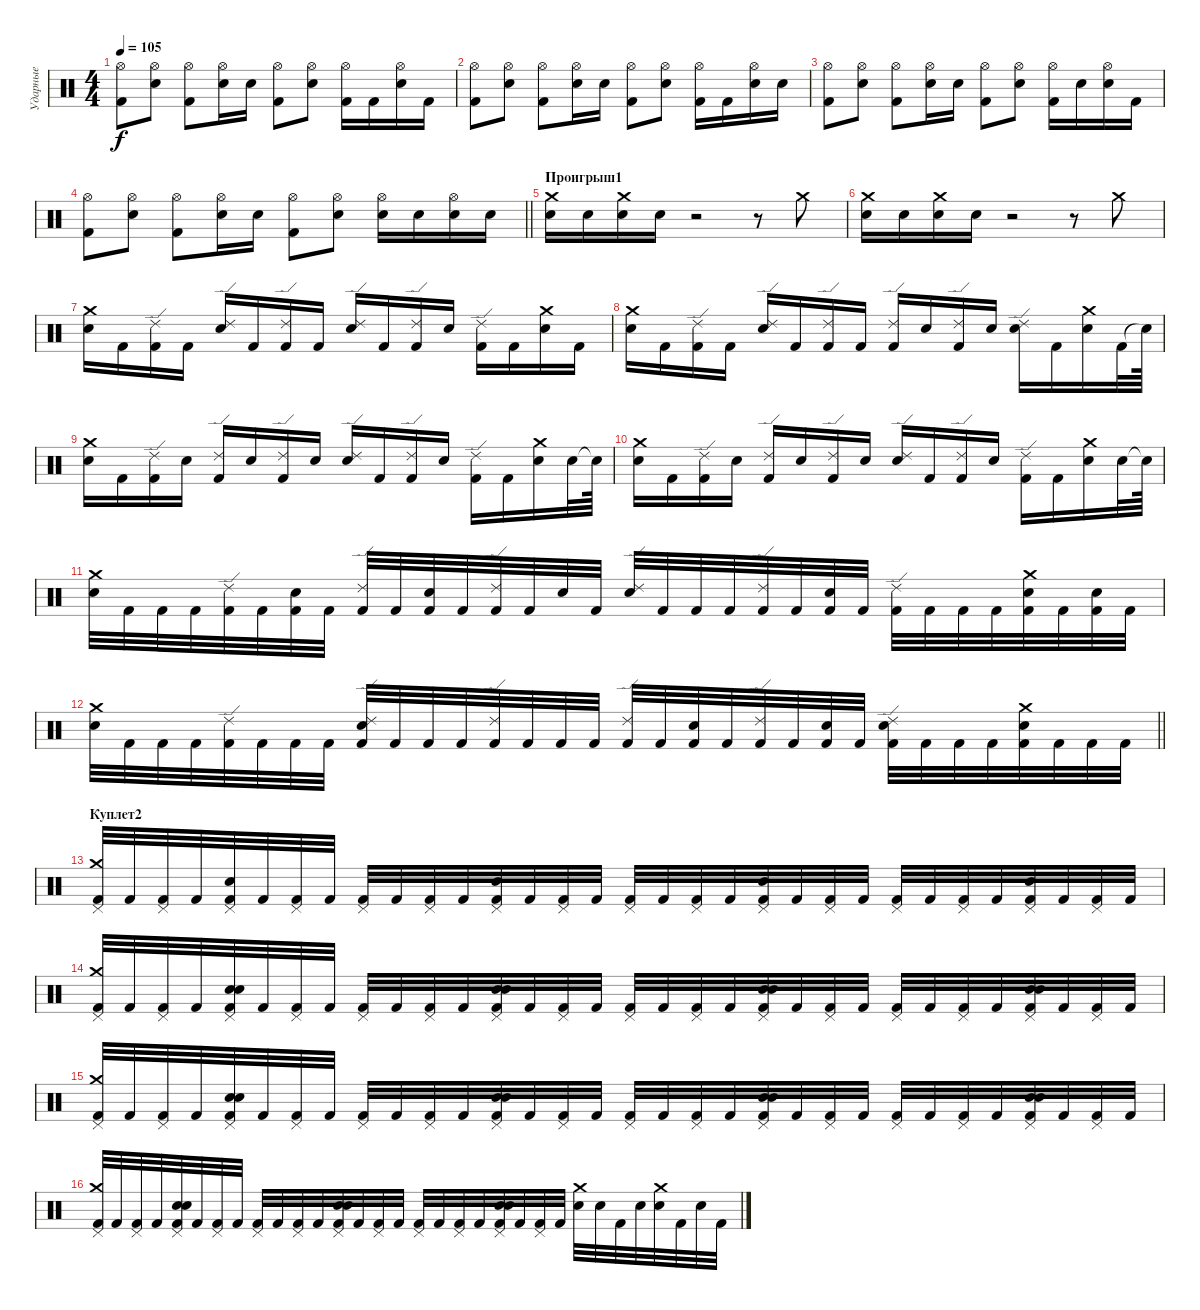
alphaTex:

\track ("Ударные" "Ударные") {instrument percussion}
\staff {score}
\articulation defaults
\ts (4 4)
\tempo 105
\clef neutral
\ks c
("Hi-Hat (open)" "Kick (hit) 2").8{dy f} ("Hi-Hat (open)" "Electric Snare (hit)").8 ("Hi-Hat (open)" "Kick (hit) 2").8 ("Hi-Hat (open)" "Electric Snare (hit)").16 "Electric Snare (hit)".16 ("Kick (hit) 2" "Hi-Hat (open)").8 ("Electric Snare (hit)" "Hi-Hat (open)").8 ("Kick (hit) 2" "Hi-Hat (open)").16 "Kick (hit) 2".16 ("Electric Snare (hit)" "Hi-Hat (open)").16 "Kick (hit) 2".16 |
("Kick (hit) 2" "Hi-Hat (open)").8 ("Electric Snare (hit)" "Hi-Hat (open)").8 ("Kick (hit) 2" "Hi-Hat (open)").8 ("Electric Snare (hit)" "Hi-Hat (open)").16 "Electric Snare (hit)".16 ("Kick (hit) 2" "Hi-Hat (open)").8 ("Electric Snare (hit)" "Hi-Hat (open)").8 ("Kick (hit) 2" "Hi-Hat (open)").16 "Kick (hit) 2".16 ("Electric Snare (hit)" "Hi-Hat (open)").16 "Electric Snare (hit)".16 |
("Hi-Hat (open)" "Kick (hit) 2").8 ("Hi-Hat (open)" "Electric Snare (hit)").8 ("Hi-Hat (open)" "Kick (hit) 2").8 ("Hi-Hat (open)" "Electric Snare (hit)").16 "Electric Snare (hit)".16 ("Kick (hit) 2" "Hi-Hat (open)").8 ("Electric Snare (hit)" "Hi-Hat (open)").8 ("Kick (hit) 2" "Hi-Hat (open)").16 "Electric Snare (hit)".16 ("Electric Snare (hit)" "Hi-Hat (open)").16 "Kick (hit) 2".16 |
\barLineRight lightlight
("Kick (hit) 2" "Hi-Hat (open)").8 ("Electric Snare (hit)" "Hi-Hat (open)").8 ("Kick (hit) 2" "Hi-Hat (open)").8 ("Electric Snare (hit)" "Hi-Hat (open)").16 "Electric Snare (hit)".16 ("Kick (hit) 2" "Hi-Hat (open)").8 ("Electric Snare (hit)" "Hi-Hat (open)").8 ("Electric Snare (hit)" "Hi-Hat (open)").16 "Electric Snare (hit)".16 ("Electric Snare (hit)" "Hi-Hat (open)").16 "Electric Snare (hit)".16 |
\section ("" "Проигрыш1")
("Crash medium (hit)" "Electric Snare (hit)").16 "Electric Snare (hit)".16 ("Crash medium (hit)" "Electric Snare (hit)").16 "Electric Snare (hit)".16 r.2 r.8 "Crash medium (hit)".8 |
("Electric Snare (hit)" "Crash medium (hit)").16 "Electric Snare (hit)".16 ("Electric Snare (hit)" "Crash medium (hit)").16 "Electric Snare (hit)".16 r.2 r.8 "Crash medium (hit)".8 |
("Crash medium (hit)" "Electric Snare (hit)").16 "Kick (hit) 2".16 ("Ride (edge) 2" "Kick (hit) 2").16 "Kick (hit) 2".16 ("Ride (edge) 2" "Electric Snare (hit)").16 "Kick (hit) 2".16 ("Ride (edge) 2" "Kick (hit) 2").16 "Kick (hit) 2".16 ("Ride (edge) 2" "Electric Snare (hit)").16 "Kick (hit) 2".16 ("Ride (edge) 2" "Kick (hit) 2").16 "Electric Snare (hit)".16 ("Ride (edge) 2" "Kick (hit) 2").16 "Kick (hit) 2".16 ("Crash medium (hit)" "Electric Snare (hit)").16 "Kick (hit) 2".16 |
("Crash medium (hit)" "Electric Snare (hit)").16 "Kick (hit) 2".16 ("Ride (edge) 2" "Kick (hit) 2").16 "Kick (hit) 2".16 ("Ride (edge) 2" "Electric Snare (hit)").16 "Kick (hit) 2".16 ("Ride (edge) 2" "Kick (hit) 2").16 "Kick (hit) 2".16 ("Ride (edge) 2" "Kick (hit) 2").16 "Electric Snare (hit)".16 ("Ride (edge) 2" "Kick (hit) 2").16 "Electric Snare (hit)".16 ("Ride (edge) 2" "Electric Snare (hit)").16 "Kick (hit) 2".16 ("Crash medium (hit)" "Electric Snare (hit)").16 "Kick (hit) 2".32 "Snare (hit)"{t}.64 |
("Crash medium (hit)" "Electric Snare (hit)").16 "Kick (hit) 2".16 ("Ride (edge) 2" "Kick (hit) 2").16 "Electric Snare (hit)".16 ("Ride (edge) 2" "Kick (hit) 2").16 "Electric Snare (hit)".16 ("Ride (edge) 2" "Kick (hit) 2").16 "Electric Snare (hit)".16 ("Ride (edge) 2" "Electric Snare (hit)").16 "Kick (hit) 2".16 ("Ride (edge) 2" "Kick (hit) 2").16 "Electric Snare (hit)".16 ("Ride (edge) 2" "Kick (hit) 2").16 "Kick (hit) 2".16 ("Crash medium (hit)" "Electric Snare (hit)").16 "Electric Snare (hit)".32 "Snare (hit)"{t}.64 |
("Crash medium (hit)" "Electric Snare (hit)").16 "Kick (hit) 2".16 ("Ride (edge) 2" "Kick (hit) 2").16 "Electric Snare (hit)".16 ("Ride (edge) 2" "Kick (hit) 2").16 "Electric Snare (hit)".16 ("Ride (edge) 2" "Kick (hit) 2").16 "Electric Snare (hit)".16 ("Ride (edge) 2" "Electric Snare (hit)").16 "Kick (hit) 2".16 ("Ride (edge) 2" "Kick (hit) 2").16 "Electric Snare (hit)".16 ("Ride (edge) 2" "Kick (hit) 2").16 "Kick (hit) 2".16 ("Crash medium (hit)" "Electric Snare (hit)").16 "Electric Snare (hit)".32 "Snare (hit)"{t}.64 |
("Crash medium (hit)" "Electric Snare (hit)").32 "Kick (hit) 2".32 "Kick (hit) 2".32 "Kick (hit) 2".32 ("Ride (edge) 2" "Kick (hit) 2").32 "Kick (hit) 2".32 ("Kick (hit) 2" "Electric Snare (hit)").32 "Kick (hit) 2".32 ("Ride (edge) 2" "Kick (hit) 2").32 "Kick (hit) 2".32 ("Kick (hit) 2" "Electric Snare (hit)").32 "Kick (hit) 2".32 ("Ride (edge) 2" "Kick (hit) 2").32 "Kick (hit) 2".32 "Electric Snare (hit)".32 "Kick (hit) 2".32 ("Ride (edge) 2" "Electric Snare (hit)").32 "Kick (hit) 2".32 "Kick (hit) 2".32 "Kick (hit) 2".32 ("Ride (edge) 2" "Kick (hit) 2").32 "Kick (hit) 2".32 ("Kick (hit) 2" "Electric Snare (hit)").32 "Kick (hit) 2".32 ("Ride (edge) 2" "Kick (hit) 2").32 "Kick (hit) 2".32 "Kick (hit) 2".32 "Kick (hit) 2".32 ("Kick (hit) 2" "Crash medium (hit)" "Electric Snare (hit)").32 "Kick (hit) 2".32 ("Kick (hit) 2" "Electric Snare (hit)").32 "Kick (hit) 2".32 |
\barLineRight lightlight
("Crash medium (hit)" "Electric Snare (hit)").32 "Kick (hit) 2".32 "Kick (hit) 2".32 "Kick (hit) 2".32 ("Ride (edge) 2" "Kick (hit) 2").32 "Kick (hit) 2".32 "Kick (hit) 2".32 "Kick (hit) 2".32 ("Kick (hit) 2" "Ride (edge) 2" "Electric Snare (hit)").32 "Kick (hit) 2".32 "Kick (hit) 2".32 "Kick (hit) 2".32 ("Ride (edge) 2" "Kick (hit) 2").32 "Kick (hit) 2".32 "Kick (hit) 2".32 "Kick (hit) 2".32 ("Ride (edge) 2" "Kick (hit) 2").32 "Kick (hit) 2".32 ("Kick (hit) 2" "Electric Snare (hit)").32 "Kick (hit) 2".32 ("Ride (edge) 2" "Kick (hit) 2").32 "Kick (hit) 2".32 ("Kick (hit) 2" "Electric Snare (hit)").32 "Kick (hit) 2".32 ("Kick (hit) 2" "Ride (edge) 2" "Electric Snare (hit)").32 "Kick (hit) 2".32 "Kick (hit) 2".32 "Kick (hit) 2".32 ("Kick (hit) 2" "Crash medium (hit)" "Electric Snare (hit)").32 "Kick (hit) 2".32 "Kick (hit) 2".32 "Kick (hit) 2".32 |
\section ("" "Куплет2")
("Crash medium (hit)" "Pedal Hi-Hat (hit)" "Kick (hit) 2").32 "Kick (hit) 2".32 ("Pedal Hi-Hat (hit)" "Kick (hit) 2").32 "Kick (hit) 2".32 ("Pedal Hi-Hat (hit)" "Kick (hit) 2" "Electric Snare (hit)").32 "Kick (hit) 2".32 ("Pedal Hi-Hat (hit)" "Kick (hit) 2").32 "Kick (hit) 2".32 ("Kick (hit) 2" "Pedal Hi-Hat (hit)").32 "Kick (hit) 2".32 ("Kick (hit) 2" "Pedal Hi-Hat (hit)").32 "Kick (hit) 2".32 ("Kick (hit) 2" "Electric Snare (hit)" "Pedal Hi-Hat (hit)").32 "Kick (hit) 2".32 ("Kick (hit) 2" "Pedal Hi-Hat (hit)").32 "Kick (hit) 2".32 ("Kick (hit) 2" "Pedal Hi-Hat (hit)").32 "Kick (hit) 2".32 ("Kick (hit) 2" "Pedal Hi-Hat (hit)").32 "Kick (hit) 2".32 ("Kick (hit) 2" "Electric Snare (hit)" "Pedal Hi-Hat (hit)").32 "Kick (hit) 2".32 ("Kick (hit) 2" "Pedal Hi-Hat (hit)").32 "Kick (hit) 2".32 ("Kick (hit) 2" "Pedal Hi-Hat (hit)").32 "Kick (hit) 2".32 ("Kick (hit) 2" "Pedal Hi-Hat (hit)").32 "Kick (hit) 2".32 ("Kick (hit) 2" "Electric Snare (hit)" "Pedal Hi-Hat (hit)").32 "Kick (hit) 2".32 ("Kick (hit) 2" "Pedal Hi-Hat (hit)").32 "Kick (hit) 2".32 |
("Kick (hit) 2" "Crash medium (hit)" "Pedal Hi-Hat (hit)").32 "Kick (hit) 2".32 ("Kick (hit) 2" "Pedal Hi-Hat (hit)").32 "Kick (hit) 2".32 ("Kick (hit) 2" "Electric Snare (hit)" "Pedal Hi-Hat (hit)" "Electric Snare (hit)").32 "Kick (hit) 2".32 ("Kick (hit) 2" "Pedal Hi-Hat (hit)").32 "Kick (hit) 2".32 ("Kick (hit) 2" "Pedal Hi-Hat (hit)").32 "Kick (hit) 2".32 ("Kick (hit) 2" "Pedal Hi-Hat (hit)").32 "Kick (hit) 2".32 ("Kick (hit) 2" "Electric Snare (hit)" "Electric Snare (hit)" "Pedal Hi-Hat (hit)").32 "Kick (hit) 2".32 ("Kick (hit) 2" "Pedal Hi-Hat (hit)").32 "Kick (hit) 2".32 ("Kick (hit) 2" "Pedal Hi-Hat (hit)").32 "Kick (hit) 2".32 ("Kick (hit) 2" "Pedal Hi-Hat (hit)").32 "Kick (hit) 2".32 ("Kick (hit) 2" "Electric Snare (hit)" "Electric Snare (hit)" "Pedal Hi-Hat (hit)").32 "Kick (hit) 2".32 ("Kick (hit) 2" "Pedal Hi-Hat (hit)").32 "Kick (hit) 2".32 ("Kick (hit) 2" "Pedal Hi-Hat (hit)").32 "Kick (hit) 2".32 ("Kick (hit) 2" "Pedal Hi-Hat (hit)").32 "Kick (hit) 2".32 ("Kick (hit) 2" "Electric Snare (hit)" "Electric Snare (hit)" "Pedal Hi-Hat (hit)").32 "Kick (hit) 2".32 ("Kick (hit) 2" "Pedal Hi-Hat (hit)").32 "Kick (hit) 2".32 |
("Crash medium (hit)" "Pedal Hi-Hat (hit)" "Kick (hit) 2").32 "Kick (hit) 2".32 ("Pedal Hi-Hat (hit)" "Kick (hit) 2").32 "Kick (hit) 2".32 ("Pedal Hi-Hat (hit)" "Electric Snare (hit)" "Kick (hit) 2" "Electric Snare (hit)").32 "Kick (hit) 2".32 ("Pedal Hi-Hat (hit)" "Kick (hit) 2").32 "Kick (hit) 2".32 ("Kick (hit) 2" "Pedal Hi-Hat (hit)").32 "Kick (hit) 2".32 ("Kick (hit) 2" "Pedal Hi-Hat (hit)").32 "Kick (hit) 2".32 ("Electric Snare (hit)" "Kick (hit) 2" "Electric Snare (hit)" "Pedal Hi-Hat (hit)").32 "Kick (hit) 2".32 ("Kick (hit) 2" "Pedal Hi-Hat (hit)").32 "Kick (hit) 2".32 ("Kick (hit) 2" "Pedal Hi-Hat (hit)").32 "Kick (hit) 2".32 ("Kick (hit) 2" "Pedal Hi-Hat (hit)").32 "Kick (hit) 2".32 ("Electric Snare (hit)" "Kick (hit) 2" "Electric Snare (hit)" "Pedal Hi-Hat (hit)").32 "Kick (hit) 2".32 ("Kick (hit) 2" "Pedal Hi-Hat (hit)").32 "Kick (hit) 2".32 ("Kick (hit) 2" "Pedal Hi-Hat (hit)").32 "Kick (hit) 2".32 ("Kick (hit) 2" "Pedal Hi-Hat (hit)").32 "Kick (hit) 2".32 ("Electric Snare (hit)" "Kick (hit) 2" "Electric Snare (hit)" "Pedal Hi-Hat (hit)").32 "Kick (hit) 2".32 ("Kick (hit) 2" "Pedal Hi-Hat (hit)").32 "Kick (hit) 2".32 |
("Kick (hit) 2" "Crash medium (hit)" "Pedal Hi-Hat (hit)").32 "Kick (hit) 2".32 ("Kick (hit) 2" "Pedal Hi-Hat (hit)").32 "Kick (hit) 2".32 ("Kick (hit) 2" "Electric Snare (hit)" "Pedal Hi-Hat (hit)" "Electric Snare (hit)").32 "Kick (hit) 2".32 ("Kick (hit) 2" "Pedal Hi-Hat (hit)").32 "Kick (hit) 2".32 ("Kick (hit) 2" "Pedal Hi-Hat (hit)").32 "Kick (hit) 2".32 ("Kick (hit) 2" "Pedal Hi-Hat (hit)").32 "Kick (hit) 2".32 ("Kick (hit) 2" "Electric Snare (hit)" "Electric Snare (hit)" "Pedal Hi-Hat (hit)").32 "Kick (hit) 2".32 ("Kick (hit) 2" "Pedal Hi-Hat (hit)").32 "Kick (hit) 2".32 ("Kick (hit) 2" "Pedal Hi-Hat (hit)").32 "Kick (hit) 2".32 ("Kick (hit) 2" "Pedal Hi-Hat (hit)").32 "Kick (hit) 2".32 ("Kick (hit) 2" "Electric Snare (hit)" "Electric Snare (hit)" "Pedal Hi-Hat (hit)").32 "Kick (hit) 2".32 ("Kick (hit) 2" "Pedal Hi-Hat (hit)").32 "Kick (hit) 2".32 ("Crash medium (hit)" "Electric Snare (hit)").32 "Electric Snare (hit)".32 "Kick (hit) 2".32 "Electric Snare (hit)".32 ("Crash medium (hit)" "Electric Snare (hit)").32 "Kick (hit) 2".32 "Electric Snare (hit)".32 "Kick (hit) 2".32
